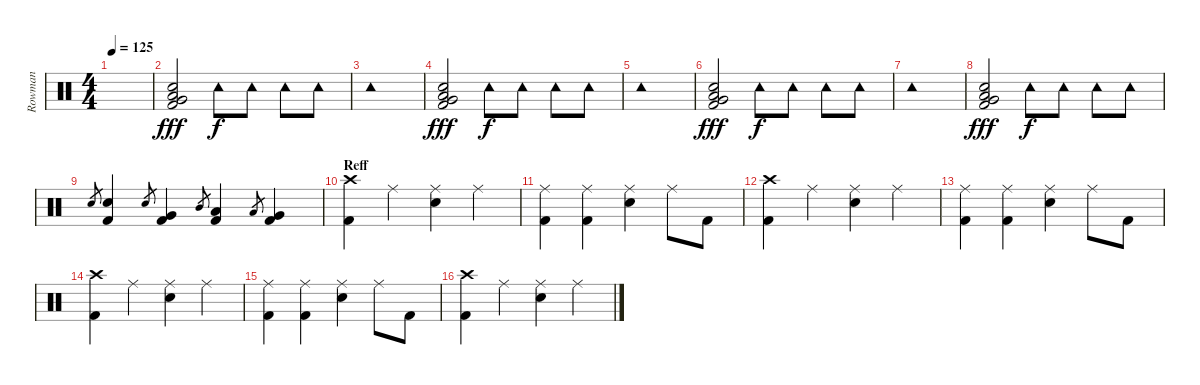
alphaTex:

\track ("Rowman" "Rowman") {instrument percussion}
\staff {score}
\articulation defaults
\ts (4 4)
\tempo 125
\clef neutral
\ks c
|
("Kick (hit) 2" "Low Floor Tom (hit)" "Very Low Tom (hit)" "Electric Snare (hit)").2{dy fff} "Tambourine (hit)".8{dy f} "Tambourine (hit)".8 "Tambourine (hit)".8 "Tambourine (hit)".8 |
"Tambourine (hit)".1 |
("Kick (hit) 2" "Low Floor Tom (hit)" "Very Low Tom (hit)" "Electric Snare (hit)").2{dy fff} "Tambourine (hit)".8{dy f} "Tambourine (hit)".8 "Tambourine (hit)".8 "Tambourine (hit)".8 |
"Tambourine (hit)".1 |
("Kick (hit) 2" "Low Floor Tom (hit)" "Very Low Tom (hit)" "Electric Snare (hit)").2{dy fff} "Tambourine (hit)".8{dy f} "Tambourine (hit)".8 "Tambourine (hit)".8 "Tambourine (hit)".8 |
"Tambourine (hit)".1 |
("Kick (hit) 2" "Low Floor Tom (hit)" "Very Low Tom (hit)" "Electric Snare (hit)").2{dy fff} "Tambourine (hit)".8{dy f} "Tambourine (hit)".8 "Tambourine (hit)".8 "Tambourine (hit)".8 |
"Electric Snare (hit)".8{gr} ("Electric Snare (hit)" "Kick (hit) 2").4 "Electric Snare (hit)".8{gr} ("Very Low Tom (hit)" "Kick (hit) 2").4 "Mid Tom (hit)".8{gr} ("Low Tom (hit)" "Kick (hit) 2").4 "Low Tom (hit)".8{gr} ("Very Low Tom (hit)" "Kick (hit) 2").4 |
\section ("" "Reff")
("Kick (hit) 2" "Crash high (hit)").4 "Ride (middle)".4 ("Electric Snare (hit)" "Ride (middle)").4 "Ride (middle)".4 |
("Kick (hit) 2" "Ride (middle)").4 ("Kick (hit) 2" "Ride (middle)").4 ("Electric Snare (hit)" "Ride (middle)").4 "Ride (middle)".8 "Kick (hit) 2".8 |
("Kick (hit) 2" "Crash high (hit)").4 "Ride (middle)".4 ("Electric Snare (hit)" "Ride (middle)").4 "Ride (middle)".4 |
("Kick (hit) 2" "Ride (middle)").4 ("Kick (hit) 2" "Ride (middle)").4 ("Electric Snare (hit)" "Ride (middle)").4 "Ride (middle)".8 "Kick (hit) 2".8 |
("Kick (hit) 2" "Crash high (hit)").4 "Ride (middle)".4 ("Electric Snare (hit)" "Ride (middle)").4 "Ride (middle)".4 |
("Kick (hit) 2" "Ride (middle)").4 ("Kick (hit) 2" "Ride (middle)").4 ("Electric Snare (hit)" "Ride (middle)").4 "Ride (middle)".8 "Kick (hit) 2".8 |
("Kick (hit) 2" "Crash high (hit)").4 "Ride (middle)".4 ("Electric Snare (hit)" "Ride (middle)").4 "Ride (middle)".4
